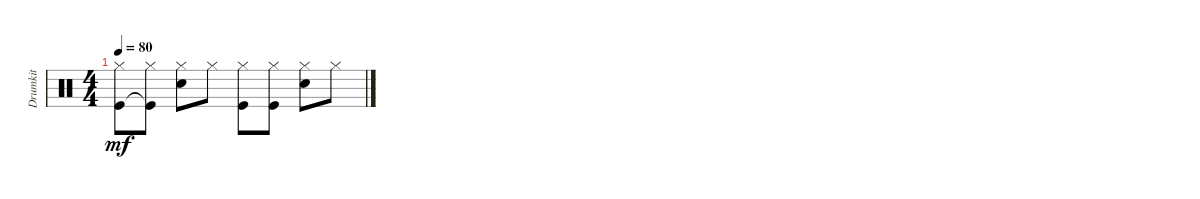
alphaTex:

\track ("Drumkit" "Drumkit") {instrument percussion}
\staff {score}
\articulation defaults
\ts (4 4)
\tempo 80
\clef neutral
\ks c
("Hi-Hat (closed)" "Kick (hit)").8{dy mf} ("Hi-Hat (closed)" "Kick (hit)"{t}).8 ("Hi-Hat (closed)" "Snare (hit) 2").8 "Hi-Hat (closed)".8 ("Hi-Hat (closed)" "Kick (hit)").8 ("Hi-Hat (closed)" "Kick (hit)").8 ("Hi-Hat (closed)" "Snare (hit) 2").8 "Hi-Hat (closed)".8
